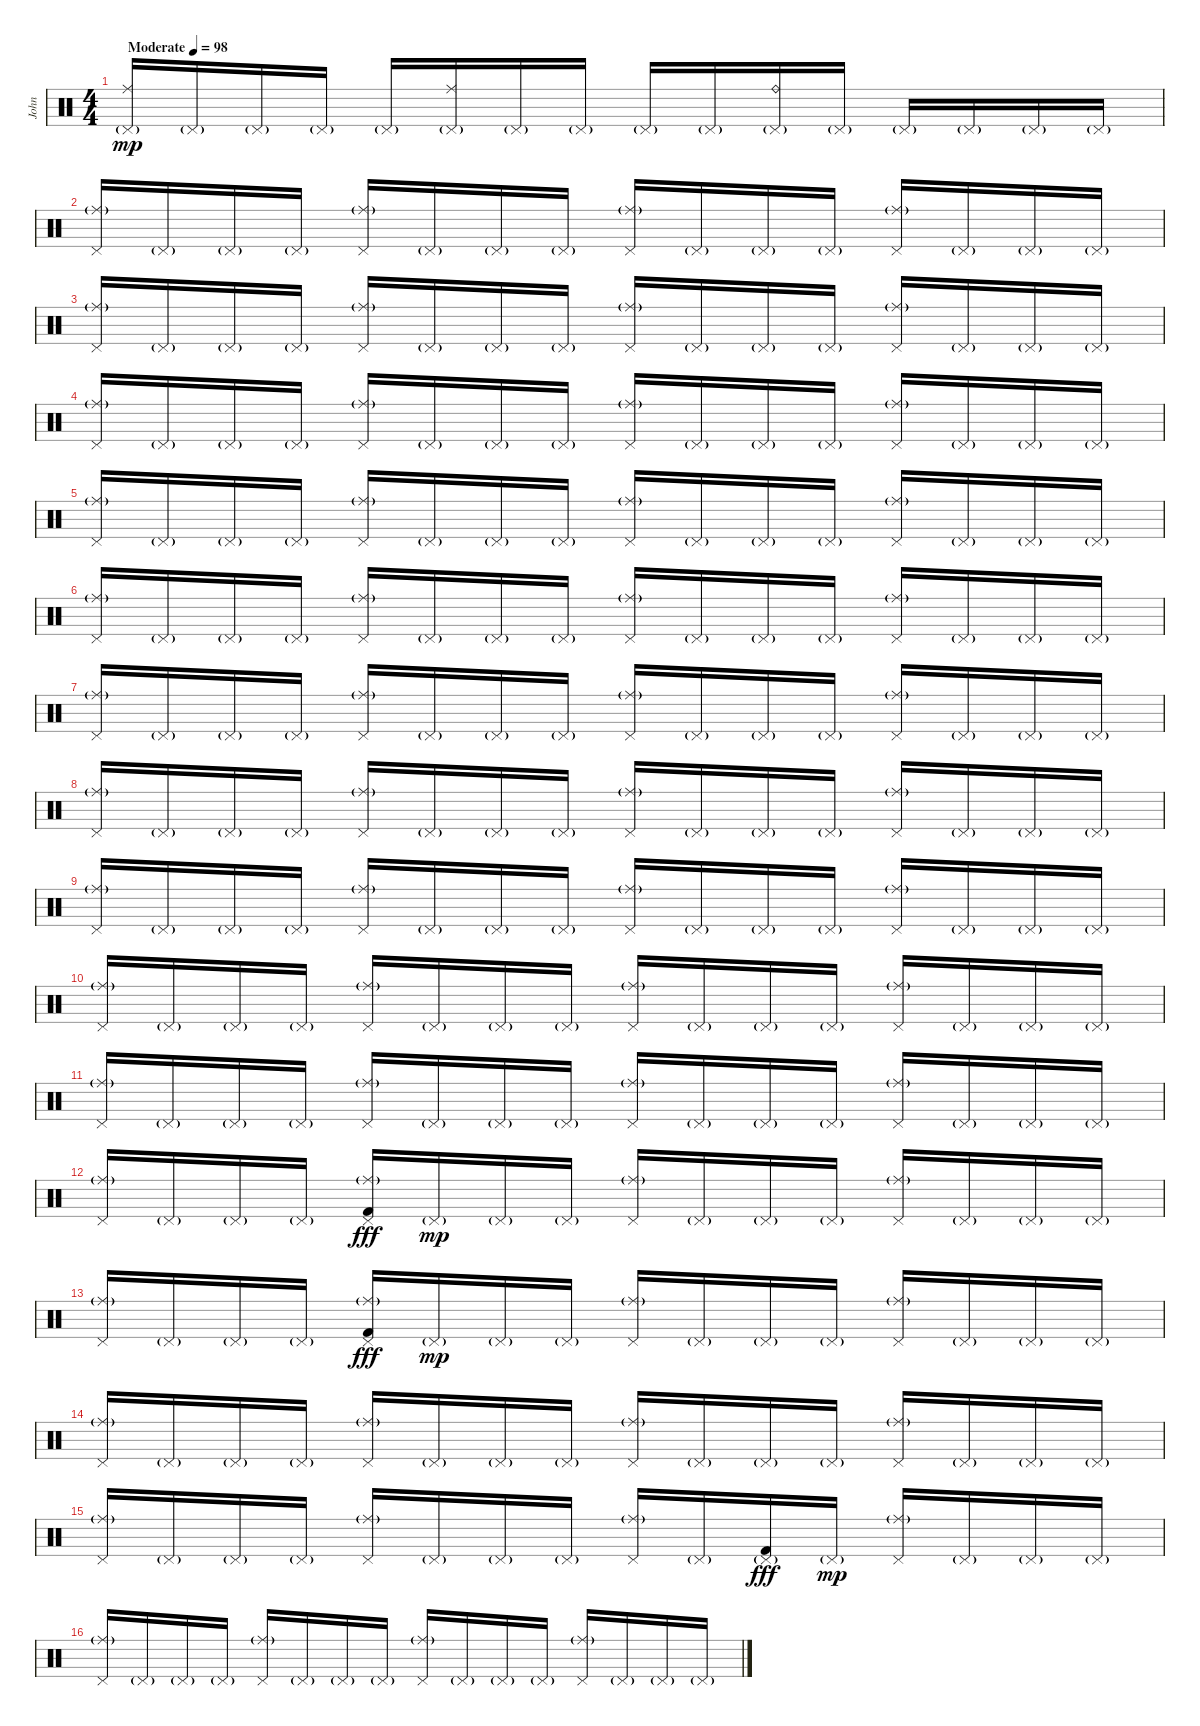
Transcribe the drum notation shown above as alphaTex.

\track ("John" "John") {instrument percussion}
\staff {score}
\articulation defaults
\ts (4 4)
\tempo (98 "Moderate")
\clef neutral
\ks c
("Ride (middle)" "Pedal Hi-Hat (hit)"{g}).16{dy mp} "Pedal Hi-Hat (hit)"{g}.16 "Pedal Hi-Hat (hit)"{g}.16 "Pedal Hi-Hat (hit)"{g}.16 "Pedal Hi-Hat (hit)"{g}.16 ("Ride (middle)" "Pedal Hi-Hat (hit)"{g}).16 "Pedal Hi-Hat (hit)"{g}.16 "Pedal Hi-Hat (hit)"{g}.16 "Pedal Hi-Hat (hit)"{g}.16 "Pedal Hi-Hat (hit)"{g}.16 ("Ride (bell)" "Pedal Hi-Hat (hit)"{g}).16 "Pedal Hi-Hat (hit)"{g}.16 "Pedal Hi-Hat (hit)"{g}.16 "Pedal Hi-Hat (hit)"{g}.16 "Pedal Hi-Hat (hit)"{g}.16 "Pedal Hi-Hat (hit)"{g}.16 |
("Ride (middle)"{g} "Pedal Hi-Hat (hit)").16 "Pedal Hi-Hat (hit)"{g}.16 "Pedal Hi-Hat (hit)"{g}.16 "Pedal Hi-Hat (hit)"{g}.16 ("Ride (middle)"{g} "Pedal Hi-Hat (hit)").16 "Pedal Hi-Hat (hit)"{g}.16 "Pedal Hi-Hat (hit)"{g}.16 "Pedal Hi-Hat (hit)"{g}.16 ("Ride (middle)"{g} "Pedal Hi-Hat (hit)").16 "Pedal Hi-Hat (hit)"{g}.16 "Pedal Hi-Hat (hit)"{g}.16 "Pedal Hi-Hat (hit)"{g}.16 ("Ride (middle)"{g} "Pedal Hi-Hat (hit)").16 "Pedal Hi-Hat (hit)"{g}.16 "Pedal Hi-Hat (hit)"{g}.16 "Pedal Hi-Hat (hit)"{g}.16 |
("Ride (middle)"{g} "Pedal Hi-Hat (hit)").16 "Pedal Hi-Hat (hit)"{g}.16 "Pedal Hi-Hat (hit)"{g}.16 "Pedal Hi-Hat (hit)"{g}.16 ("Ride (middle)"{g} "Pedal Hi-Hat (hit)").16 "Pedal Hi-Hat (hit)"{g}.16 "Pedal Hi-Hat (hit)"{g}.16 "Pedal Hi-Hat (hit)"{g}.16 ("Ride (middle)"{g} "Pedal Hi-Hat (hit)").16 "Pedal Hi-Hat (hit)"{g}.16 "Pedal Hi-Hat (hit)"{g}.16 "Pedal Hi-Hat (hit)"{g}.16 ("Ride (middle)"{g} "Pedal Hi-Hat (hit)").16 "Pedal Hi-Hat (hit)"{g}.16 "Pedal Hi-Hat (hit)"{g}.16 "Pedal Hi-Hat (hit)"{g}.16 |
("Ride (middle)"{g} "Pedal Hi-Hat (hit)").16 "Pedal Hi-Hat (hit)"{g}.16 "Pedal Hi-Hat (hit)"{g}.16 "Pedal Hi-Hat (hit)"{g}.16 ("Ride (middle)"{g} "Pedal Hi-Hat (hit)").16 "Pedal Hi-Hat (hit)"{g}.16 "Pedal Hi-Hat (hit)"{g}.16 "Pedal Hi-Hat (hit)"{g}.16 ("Ride (middle)"{g} "Pedal Hi-Hat (hit)").16 "Pedal Hi-Hat (hit)"{g}.16 "Pedal Hi-Hat (hit)"{g}.16 "Pedal Hi-Hat (hit)"{g}.16 ("Ride (middle)"{g} "Pedal Hi-Hat (hit)").16 "Pedal Hi-Hat (hit)"{g}.16 "Pedal Hi-Hat (hit)"{g}.16 "Pedal Hi-Hat (hit)"{g}.16 |
("Ride (middle)"{g} "Pedal Hi-Hat (hit)").16 "Pedal Hi-Hat (hit)"{g}.16 "Pedal Hi-Hat (hit)"{g}.16 "Pedal Hi-Hat (hit)"{g}.16 ("Ride (middle)"{g} "Pedal Hi-Hat (hit)").16 "Pedal Hi-Hat (hit)"{g}.16 "Pedal Hi-Hat (hit)"{g}.16 "Pedal Hi-Hat (hit)"{g}.16 ("Ride (middle)"{g} "Pedal Hi-Hat (hit)").16 "Pedal Hi-Hat (hit)"{g}.16 "Pedal Hi-Hat (hit)"{g}.16 "Pedal Hi-Hat (hit)"{g}.16 ("Ride (middle)"{g} "Pedal Hi-Hat (hit)").16 "Pedal Hi-Hat (hit)"{g}.16 "Pedal Hi-Hat (hit)"{g}.16 "Pedal Hi-Hat (hit)"{g}.16 |
("Ride (middle)"{g} "Pedal Hi-Hat (hit)").16 "Pedal Hi-Hat (hit)"{g}.16 "Pedal Hi-Hat (hit)"{g}.16 "Pedal Hi-Hat (hit)"{g}.16 ("Ride (middle)"{g} "Pedal Hi-Hat (hit)").16 "Pedal Hi-Hat (hit)"{g}.16 "Pedal Hi-Hat (hit)"{g}.16 "Pedal Hi-Hat (hit)"{g}.16 ("Ride (middle)"{g} "Pedal Hi-Hat (hit)").16 "Pedal Hi-Hat (hit)"{g}.16 "Pedal Hi-Hat (hit)"{g}.16 "Pedal Hi-Hat (hit)"{g}.16 ("Ride (middle)"{g} "Pedal Hi-Hat (hit)").16 "Pedal Hi-Hat (hit)"{g}.16 "Pedal Hi-Hat (hit)"{g}.16 "Pedal Hi-Hat (hit)"{g}.16 |
("Ride (middle)"{g} "Pedal Hi-Hat (hit)").16 "Pedal Hi-Hat (hit)"{g}.16 "Pedal Hi-Hat (hit)"{g}.16 "Pedal Hi-Hat (hit)"{g}.16 ("Ride (middle)"{g} "Pedal Hi-Hat (hit)").16 "Pedal Hi-Hat (hit)"{g}.16 "Pedal Hi-Hat (hit)"{g}.16 "Pedal Hi-Hat (hit)"{g}.16 ("Ride (middle)"{g} "Pedal Hi-Hat (hit)").16 "Pedal Hi-Hat (hit)"{g}.16 "Pedal Hi-Hat (hit)"{g}.16 "Pedal Hi-Hat (hit)"{g}.16 ("Ride (middle)"{g} "Pedal Hi-Hat (hit)").16 "Pedal Hi-Hat (hit)"{g}.16 "Pedal Hi-Hat (hit)"{g}.16 "Pedal Hi-Hat (hit)"{g}.16 |
("Ride (middle)"{g} "Pedal Hi-Hat (hit)").16 "Pedal Hi-Hat (hit)"{g}.16 "Pedal Hi-Hat (hit)"{g}.16 "Pedal Hi-Hat (hit)"{g}.16 ("Ride (middle)"{g} "Pedal Hi-Hat (hit)").16 "Pedal Hi-Hat (hit)"{g}.16 "Pedal Hi-Hat (hit)"{g}.16 "Pedal Hi-Hat (hit)"{g}.16 ("Ride (middle)"{g} "Pedal Hi-Hat (hit)").16 "Pedal Hi-Hat (hit)"{g}.16 "Pedal Hi-Hat (hit)"{g}.16 "Pedal Hi-Hat (hit)"{g}.16 ("Ride (middle)"{g} "Pedal Hi-Hat (hit)").16 "Pedal Hi-Hat (hit)"{g}.16 "Pedal Hi-Hat (hit)"{g}.16 "Pedal Hi-Hat (hit)"{g}.16 |
("Ride (middle)"{g} "Pedal Hi-Hat (hit)").16 "Pedal Hi-Hat (hit)"{g}.16 "Pedal Hi-Hat (hit)"{g}.16 "Pedal Hi-Hat (hit)"{g}.16 ("Ride (middle)"{g} "Pedal Hi-Hat (hit)").16 "Pedal Hi-Hat (hit)"{g}.16 "Pedal Hi-Hat (hit)"{g}.16 "Pedal Hi-Hat (hit)"{g}.16 ("Ride (middle)"{g} "Pedal Hi-Hat (hit)").16 "Pedal Hi-Hat (hit)"{g}.16 "Pedal Hi-Hat (hit)"{g}.16 "Pedal Hi-Hat (hit)"{g}.16 ("Ride (middle)"{g} "Pedal Hi-Hat (hit)").16 "Pedal Hi-Hat (hit)"{g}.16 "Pedal Hi-Hat (hit)"{g}.16 "Pedal Hi-Hat (hit)"{g}.16 |
("Ride (middle)"{g} "Pedal Hi-Hat (hit)").16 "Pedal Hi-Hat (hit)"{g}.16 "Pedal Hi-Hat (hit)"{g}.16 "Pedal Hi-Hat (hit)"{g}.16 ("Ride (middle)"{g} "Pedal Hi-Hat (hit)").16 "Pedal Hi-Hat (hit)"{g}.16 "Pedal Hi-Hat (hit)"{g}.16 "Pedal Hi-Hat (hit)"{g}.16 ("Ride (middle)"{g} "Pedal Hi-Hat (hit)").16 "Pedal Hi-Hat (hit)"{g}.16 "Pedal Hi-Hat (hit)"{g}.16 "Pedal Hi-Hat (hit)"{g}.16 ("Ride (middle)"{g} "Pedal Hi-Hat (hit)").16 "Pedal Hi-Hat (hit)"{g}.16 "Pedal Hi-Hat (hit)"{g}.16 "Pedal Hi-Hat (hit)"{g}.16 |
("Ride (middle)"{g} "Pedal Hi-Hat (hit)").16 "Pedal Hi-Hat (hit)"{g}.16 "Pedal Hi-Hat (hit)"{g}.16 "Pedal Hi-Hat (hit)"{g}.16 ("Ride (middle)"{g} "Pedal Hi-Hat (hit)").16 "Pedal Hi-Hat (hit)"{g}.16 "Pedal Hi-Hat (hit)"{g}.16 "Pedal Hi-Hat (hit)"{g}.16 ("Ride (middle)"{g} "Pedal Hi-Hat (hit)").16 "Pedal Hi-Hat (hit)"{g}.16 "Pedal Hi-Hat (hit)"{g}.16 "Pedal Hi-Hat (hit)"{g}.16 ("Ride (middle)"{g} "Pedal Hi-Hat (hit)").16 "Pedal Hi-Hat (hit)"{g}.16 "Pedal Hi-Hat (hit)"{g}.16 "Pedal Hi-Hat (hit)"{g}.16 |
("Ride (middle)"{g} "Pedal Hi-Hat (hit)").16 "Pedal Hi-Hat (hit)"{g}.16 "Pedal Hi-Hat (hit)"{g}.16 "Pedal Hi-Hat (hit)"{g}.16 ("Ride (middle)"{g} "Pedal Hi-Hat (hit)" "Kick (hit) 2").16{dy fff volume 16} "Pedal Hi-Hat (hit)"{g}.16{dy mp volume 6} "Pedal Hi-Hat (hit)"{g}.16 "Pedal Hi-Hat (hit)"{g}.16 ("Ride (middle)"{g} "Pedal Hi-Hat (hit)").16 "Pedal Hi-Hat (hit)"{g}.16 "Pedal Hi-Hat (hit)"{g}.16 "Pedal Hi-Hat (hit)"{g}.16 ("Ride (middle)"{g} "Pedal Hi-Hat (hit)").16 "Pedal Hi-Hat (hit)"{g}.16 "Pedal Hi-Hat (hit)"{g}.16 "Pedal Hi-Hat (hit)"{g}.16 |
("Ride (middle)"{g} "Pedal Hi-Hat (hit)").16 "Pedal Hi-Hat (hit)"{g}.16 "Pedal Hi-Hat (hit)"{g}.16 "Pedal Hi-Hat (hit)"{g}.16 ("Ride (middle)"{g} "Pedal Hi-Hat (hit)" "Kick (hit) 2").16{dy fff volume 16} "Pedal Hi-Hat (hit)"{g}.16{dy mp volume 6} "Pedal Hi-Hat (hit)"{g}.16 "Pedal Hi-Hat (hit)"{g}.16 ("Ride (middle)"{g} "Pedal Hi-Hat (hit)").16 "Pedal Hi-Hat (hit)"{g}.16 "Pedal Hi-Hat (hit)"{g}.16 "Pedal Hi-Hat (hit)"{g}.16 ("Ride (middle)"{g} "Pedal Hi-Hat (hit)").16 "Pedal Hi-Hat (hit)"{g}.16 "Pedal Hi-Hat (hit)"{g}.16 "Pedal Hi-Hat (hit)"{g}.16 |
("Ride (middle)"{g} "Pedal Hi-Hat (hit)").16 "Pedal Hi-Hat (hit)"{g}.16 "Pedal Hi-Hat (hit)"{g}.16 "Pedal Hi-Hat (hit)"{g}.16 ("Ride (middle)"{g} "Pedal Hi-Hat (hit)").16 "Pedal Hi-Hat (hit)"{g}.16 "Pedal Hi-Hat (hit)"{g}.16 "Pedal Hi-Hat (hit)"{g}.16 ("Ride (middle)"{g} "Pedal Hi-Hat (hit)").16 "Pedal Hi-Hat (hit)"{g}.16 "Pedal Hi-Hat (hit)"{g}.16 "Pedal Hi-Hat (hit)"{g}.16 ("Ride (middle)"{g} "Pedal Hi-Hat (hit)").16 "Pedal Hi-Hat (hit)"{g}.16 "Pedal Hi-Hat (hit)"{g}.16 "Pedal Hi-Hat (hit)"{g}.16 |
("Ride (middle)"{g} "Pedal Hi-Hat (hit)").16 "Pedal Hi-Hat (hit)"{g}.16 "Pedal Hi-Hat (hit)"{g}.16 "Pedal Hi-Hat (hit)"{g}.16 ("Ride (middle)"{g} "Pedal Hi-Hat (hit)").16 "Pedal Hi-Hat (hit)"{g}.16 "Pedal Hi-Hat (hit)"{g}.16 "Pedal Hi-Hat (hit)"{g}.16 ("Ride (middle)"{g} "Pedal Hi-Hat (hit)").16 "Pedal Hi-Hat (hit)"{g}.16 ("Pedal Hi-Hat (hit)"{g} "Kick (hit) 2").16{dy fff volume 16} "Pedal Hi-Hat (hit)"{g}.16{dy mp volume 6} ("Ride (middle)"{g} "Pedal Hi-Hat (hit)").16 "Pedal Hi-Hat (hit)"{g}.16 "Pedal Hi-Hat (hit)"{g}.16 "Pedal Hi-Hat (hit)"{g}.16 |
("Ride (middle)"{g} "Pedal Hi-Hat (hit)").16 "Pedal Hi-Hat (hit)"{g}.16 "Pedal Hi-Hat (hit)"{g}.16 "Pedal Hi-Hat (hit)"{g}.16 ("Ride (middle)"{g} "Pedal Hi-Hat (hit)").16 "Pedal Hi-Hat (hit)"{g}.16 "Pedal Hi-Hat (hit)"{g}.16 "Pedal Hi-Hat (hit)"{g}.16 ("Ride (middle)"{g} "Pedal Hi-Hat (hit)").16 "Pedal Hi-Hat (hit)"{g}.16 "Pedal Hi-Hat (hit)"{g}.16 "Pedal Hi-Hat (hit)"{g}.16 ("Ride (middle)"{g} "Pedal Hi-Hat (hit)").16 "Pedal Hi-Hat (hit)"{g}.16 "Pedal Hi-Hat (hit)"{g}.16 "Pedal Hi-Hat (hit)"{g}.16
